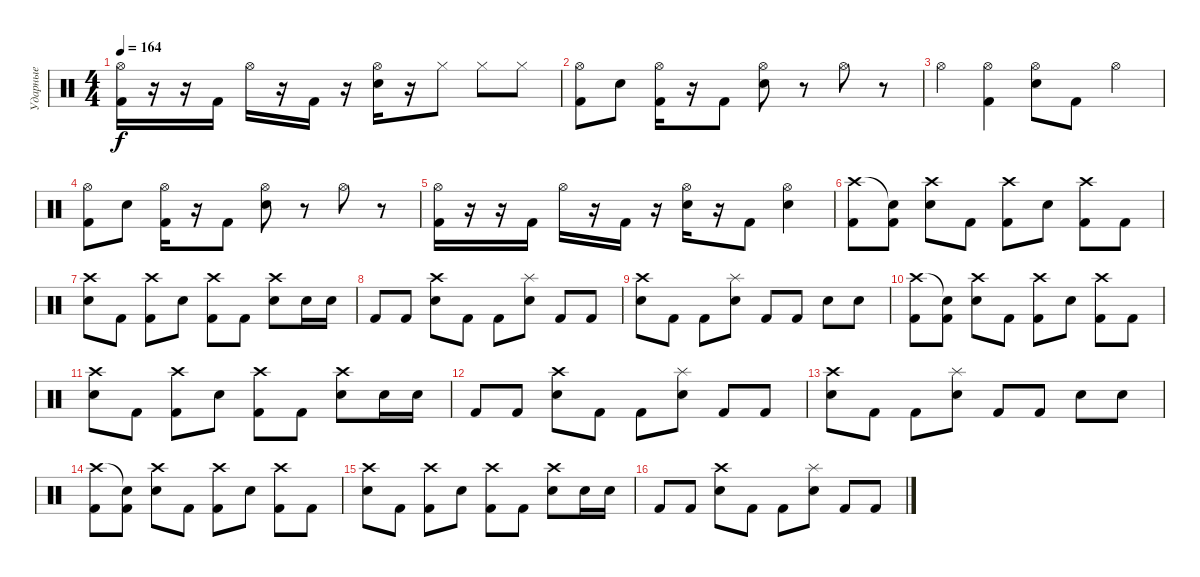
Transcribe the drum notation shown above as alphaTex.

\track ("Ударные" "Ударные") {instrument percussion}
\staff {score}
\articulation defaults
\ts (4 4)
\tempo 164
\clef neutral
\ks c
("Hi-Hat (open)" "Kick (hit) 2").16{dy f} r.16 r.16 "Kick (hit) 2".16 "Hi-Hat (open)".16 r.16 "Kick (hit) 2".16 r.16 ("Hi-Hat (open)" "Snare (hit) 2").16 r.16 "Hi-Hat (closed)".8 "Hi-Hat (closed)".8 "Hi-Hat (closed)".8 |
("Hi-Hat (open)" "Kick (hit) 2").8 "Snare (hit) 2".8 ("Hi-Hat (open)" "Kick (hit) 2").16 r.16 "Kick (hit) 2".8 ("Hi-Hat (open)" "Snare (hit) 2").8 r.8 "Hi-Hat (open)".8 r.8 |
"Hi-Hat (open)".4 ("Hi-Hat (open)" "Kick (hit) 2").4 ("Hi-Hat (open)" "Snare (hit) 2").8 "Kick (hit) 2".8 "Hi-Hat (open)".4 |
("Hi-Hat (open)" "Kick (hit) 2").8 "Snare (hit) 2".8 ("Hi-Hat (open)" "Kick (hit) 2").16 r.16 "Kick (hit) 2".8 ("Hi-Hat (open)" "Snare (hit) 2").8 r.8 "Hi-Hat (open)".8 r.8 |
("Hi-Hat (open)" "Kick (hit) 2").16 r.16 r.16 "Kick (hit) 2".16 "Hi-Hat (open)".16 r.16 "Kick (hit) 2".16 r.16 ("Hi-Hat (open)" "Snare (hit) 2").16 r.16 "Kick (hit) 2".8 ("Hi-Hat (open)" "Snare (hit) 2").4 |
("Crash high (hit)" "Kick (hit) 2").8 ("Snare (hit)"{t} "Kick (hit) 2").8 ("Crash high (hit)" "Snare (hit) 2").8 "Kick (hit) 2".8 ("Crash high (hit)" "Kick (hit) 2").8 "Snare (hit) 2".8 ("Crash high (hit)" "Kick (hit) 2").8 "Kick (hit) 2".8 |
("Crash high (hit)" "Snare (hit) 2").8 "Kick (hit) 2".8 ("Crash high (hit)" "Kick (hit) 2").8 "Snare (hit) 2".8 ("Crash high (hit)" "Kick (hit) 2").8 "Kick (hit) 2".8 ("Crash high (hit)" "Snare (hit) 2").8 "Snare (hit) 2".16 "Snare (hit) 2".16 |
"Kick (hit) 2".8 "Kick (hit) 2".8 ("Crash high (hit)" "Snare (hit) 2").8 "Kick (hit) 2".8 "Kick (hit) 2".8 ("Splash (hit)" "Snare (hit) 2").8 "Kick (hit) 2".8 "Kick (hit) 2".8 |
("Crash high (hit)" "Snare (hit) 2").8 "Kick (hit) 2".8 "Kick (hit) 2".8 ("Splash (hit)" "Snare (hit) 2").8 "Kick (hit) 2".8 "Kick (hit) 2".8 "Snare (hit) 2".8 "Snare (hit) 2".8 |
("Crash high (hit)" "Kick (hit) 2").8 ("Snare (hit)"{t} "Kick (hit) 2").8 ("Crash high (hit)" "Snare (hit) 2").8 "Kick (hit) 2".8 ("Crash high (hit)" "Kick (hit) 2").8 "Snare (hit) 2".8 ("Crash high (hit)" "Kick (hit) 2").8 "Kick (hit) 2".8 |
("Crash high (hit)" "Snare (hit) 2").8 "Kick (hit) 2".8 ("Crash high (hit)" "Kick (hit) 2").8 "Snare (hit) 2".8 ("Crash high (hit)" "Kick (hit) 2").8 "Kick (hit) 2".8 ("Crash high (hit)" "Snare (hit) 2").8 "Snare (hit) 2".16 "Snare (hit) 2".16 |
"Kick (hit) 2".8 "Kick (hit) 2".8 ("Crash high (hit)" "Snare (hit) 2").8 "Kick (hit) 2".8 "Kick (hit) 2".8 ("Splash (hit)" "Snare (hit) 2").8 "Kick (hit) 2".8 "Kick (hit) 2".8 |
("Crash high (hit)" "Snare (hit) 2").8 "Kick (hit) 2".8 "Kick (hit) 2".8 ("Splash (hit)" "Snare (hit) 2").8 "Kick (hit) 2".8 "Kick (hit) 2".8 "Snare (hit) 2".8 "Snare (hit) 2".8 |
("Crash high (hit)" "Kick (hit) 2").8 ("Snare (hit)"{t} "Kick (hit) 2").8 ("Crash high (hit)" "Snare (hit) 2").8 "Kick (hit) 2".8 ("Crash high (hit)" "Kick (hit) 2").8 "Snare (hit) 2".8 ("Crash high (hit)" "Kick (hit) 2").8 "Kick (hit) 2".8 |
("Crash high (hit)" "Snare (hit) 2").8 "Kick (hit) 2".8 ("Crash high (hit)" "Kick (hit) 2").8 "Snare (hit) 2".8 ("Crash high (hit)" "Kick (hit) 2").8 "Kick (hit) 2".8 ("Crash high (hit)" "Snare (hit) 2").8 "Snare (hit) 2".16 "Snare (hit) 2".16 |
"Kick (hit) 2".8 "Kick (hit) 2".8 ("Crash high (hit)" "Snare (hit) 2").8 "Kick (hit) 2".8 "Kick (hit) 2".8 ("Splash (hit)" "Snare (hit) 2").8 "Kick (hit) 2".8 "Kick (hit) 2".8
